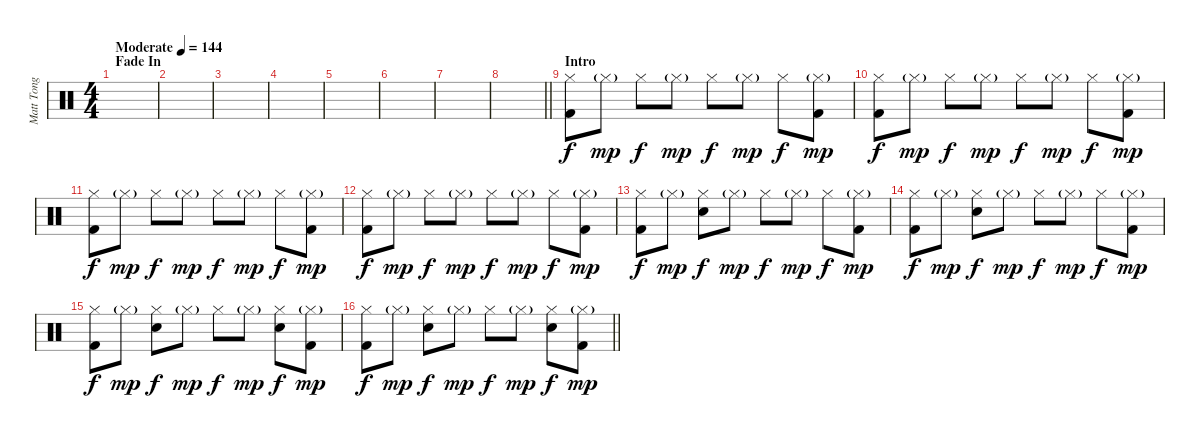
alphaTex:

\track ("Matt Tong" "Matt Tong") {instrument percussion}
\staff {score}
\articulation defaults
\ts (4 4)
\section ("" "Fade In")
\tempo (144 "Moderate")
\clef neutral
\ks c
|
|
|
|
|
|
|
\barLineRight lightlight
|
\section ("" "Intro")
("Hi-Hat (closed)" "Kick (hit) 2").8 "Hi-Hat (closed)"{g}.8{dy mp} "Hi-Hat (closed)".8{dy f} "Hi-Hat (closed)"{g}.8{dy mp} "Hi-Hat (closed)".8{dy f} "Hi-Hat (closed)"{g}.8{dy mp} "Hi-Hat (closed)".8{dy f} ("Hi-Hat (closed)"{g} "Kick (hit) 2").8{dy mp} |
("Hi-Hat (closed)" "Kick (hit) 2").8{dy f} "Hi-Hat (closed)"{g}.8{dy mp} "Hi-Hat (closed)".8{dy f} "Hi-Hat (closed)"{g}.8{dy mp} "Hi-Hat (closed)".8{dy f} "Hi-Hat (closed)"{g}.8{dy mp} "Hi-Hat (closed)".8{dy f} ("Hi-Hat (closed)"{g} "Kick (hit) 2").8{dy mp} |
("Hi-Hat (closed)" "Kick (hit) 2").8{dy f} "Hi-Hat (closed)"{g}.8{dy mp} "Hi-Hat (closed)".8{dy f} "Hi-Hat (closed)"{g}.8{dy mp} "Hi-Hat (closed)".8{dy f} "Hi-Hat (closed)"{g}.8{dy mp} "Hi-Hat (closed)".8{dy f} ("Hi-Hat (closed)"{g} "Kick (hit) 2").8{dy mp} |
("Hi-Hat (closed)" "Kick (hit) 2").8{dy f} "Hi-Hat (closed)"{g}.8{dy mp} "Hi-Hat (closed)".8{dy f} "Hi-Hat (closed)"{g}.8{dy mp} "Hi-Hat (closed)".8{dy f} "Hi-Hat (closed)"{g}.8{dy mp} "Hi-Hat (closed)".8{dy f} ("Hi-Hat (closed)"{g} "Kick (hit) 2").8{dy mp} |
("Hi-Hat (closed)" "Kick (hit) 2").8{dy f} "Hi-Hat (closed)"{g}.8{dy mp} ("Hi-Hat (closed)" "Electric Snare (hit)").8{dy f} "Hi-Hat (closed)"{g}.8{dy mp} "Hi-Hat (closed)".8{dy f} "Hi-Hat (closed)"{g}.8{dy mp} "Hi-Hat (closed)".8{dy f} ("Hi-Hat (closed)"{g} "Kick (hit) 2").8{dy mp} |
("Hi-Hat (closed)" "Kick (hit) 2").8{dy f} "Hi-Hat (closed)"{g}.8{dy mp} ("Hi-Hat (closed)" "Electric Snare (hit)").8{dy f} "Hi-Hat (closed)"{g}.8{dy mp} "Hi-Hat (closed)".8{dy f} "Hi-Hat (closed)"{g}.8{dy mp} "Hi-Hat (closed)".8{dy f} ("Hi-Hat (closed)"{g} "Kick (hit) 2").8{dy mp} |
("Hi-Hat (closed)" "Kick (hit) 2").8{dy f} "Hi-Hat (closed)"{g}.8{dy mp} ("Hi-Hat (closed)" "Electric Snare (hit)").8{dy f} "Hi-Hat (closed)"{g}.8{dy mp} "Hi-Hat (closed)".8{dy f} "Hi-Hat (closed)"{g}.8{dy mp} ("Hi-Hat (closed)" "Electric Snare (hit)").8{dy f} ("Hi-Hat (closed)"{g} "Kick (hit) 2").8{dy mp} |
\barLineRight lightlight
("Hi-Hat (closed)" "Kick (hit) 2").8{dy f} "Hi-Hat (closed)"{g}.8{dy mp} ("Hi-Hat (closed)" "Electric Snare (hit)").8{dy f} "Hi-Hat (closed)"{g}.8{dy mp} "Hi-Hat (closed)".8{dy f} "Hi-Hat (closed)"{g}.8{dy mp} ("Hi-Hat (closed)" "Electric Snare (hit)").8{dy f} ("Hi-Hat (closed)"{g} "Kick (hit) 2").8{dy mp}
